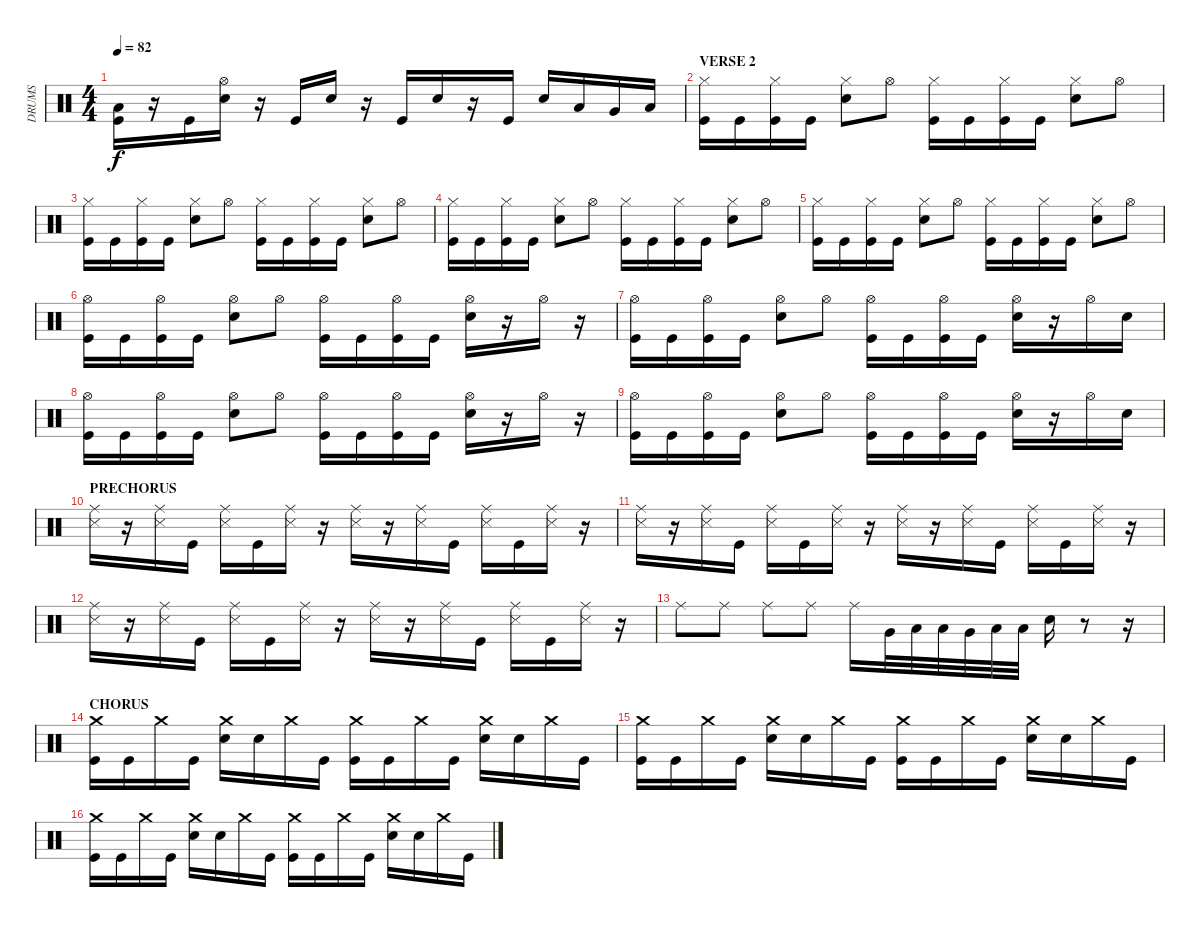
\track ("DRUMS" "DRUMS") {instrument percussion}
\staff {score}
\articulation defaults
\ts (4 4)
\tempo 82
\clef neutral
\ks c
("Low Tom (hit)" "Kick (hit)").16{dy f} r.16 "Kick (hit)".16 ("Hi-Hat (open)" "Electric Snare (hit)").16 r.16 "Kick (hit)".16 "Electric Snare (hit)".16 r.16 "Kick (hit)".16 "Electric Snare (hit)".16 r.16 "Kick (hit)".16 "Electric Snare (hit)".16 "Low Tom (hit)".16 "Very Low Tom (hit)".16 "Low Floor Tom (hit)".16 |
\section ("" "VERSE 2")
("Hi-Hat (closed)" "Kick (hit)").16 "Kick (hit)".16 ("Hi-Hat (closed)" "Kick (hit)").16 "Kick (hit)".16 ("Hi-Hat (closed)" "Electric Snare (hit)").8 "Hi-Hat (open)".8 ("Hi-Hat (closed)" "Kick (hit)").16 "Kick (hit)".16 ("Hi-Hat (closed)" "Kick (hit)").16 "Kick (hit)".16 ("Hi-Hat (closed)" "Electric Snare (hit)").8 "Hi-Hat (open)".8 |
("Hi-Hat (closed)" "Kick (hit)").16 "Kick (hit)".16 ("Hi-Hat (closed)" "Kick (hit)").16 "Kick (hit)".16 ("Hi-Hat (closed)" "Electric Snare (hit)").8 "Hi-Hat (open)".8 ("Hi-Hat (closed)" "Kick (hit)").16 "Kick (hit)".16 ("Hi-Hat (closed)" "Kick (hit)").16 "Kick (hit)".16 ("Hi-Hat (closed)" "Electric Snare (hit)").8 "Hi-Hat (open)".8 |
("Hi-Hat (closed)" "Kick (hit)").16 "Kick (hit)".16 ("Hi-Hat (closed)" "Kick (hit)").16 "Kick (hit)".16 ("Hi-Hat (closed)" "Electric Snare (hit)").8 "Hi-Hat (open)".8 ("Hi-Hat (closed)" "Kick (hit)").16 "Kick (hit)".16 ("Hi-Hat (closed)" "Kick (hit)").16 "Kick (hit)".16 ("Hi-Hat (closed)" "Electric Snare (hit)").8 "Hi-Hat (open)".8 |
("Hi-Hat (closed)" "Kick (hit)").16 "Kick (hit)".16 ("Hi-Hat (closed)" "Kick (hit)").16 "Kick (hit)".16 ("Hi-Hat (closed)" "Electric Snare (hit)").8 "Hi-Hat (open)".8 ("Hi-Hat (closed)" "Kick (hit)").16 "Kick (hit)".16 ("Hi-Hat (closed)" "Kick (hit)").16 "Kick (hit)".16 ("Hi-Hat (closed)" "Electric Snare (hit)").8 "Hi-Hat (open)".8 |
("Hi-Hat (open)" "Kick (hit)").16 "Kick (hit)".16 ("Hi-Hat (open)" "Kick (hit)").16 "Kick (hit)".16 ("Hi-Hat (open)" "Electric Snare (hit)").8 "Hi-Hat (open)".8 ("Hi-Hat (open)" "Kick (hit)").16 "Kick (hit)".16 ("Hi-Hat (open)" "Kick (hit)").16 "Kick (hit)".16 ("Hi-Hat (open)" "Electric Snare (hit)").16 r.16 "Hi-Hat (open)".16 r.16 |
("Hi-Hat (open)" "Kick (hit)").16 "Kick (hit)".16 ("Hi-Hat (open)" "Kick (hit)").16 "Kick (hit)".16 ("Hi-Hat (open)" "Electric Snare (hit)").8 "Hi-Hat (open)".8 ("Hi-Hat (open)" "Kick (hit)").16 "Kick (hit)".16 ("Hi-Hat (open)" "Kick (hit)").16 "Kick (hit)".16 ("Hi-Hat (open)" "Electric Snare (hit)").16 r.16 "Hi-Hat (open)".16 "Electric Snare (hit)".16 |
("Hi-Hat (open)" "Kick (hit)").16 "Kick (hit)".16 ("Hi-Hat (open)" "Kick (hit)").16 "Kick (hit)".16 ("Hi-Hat (open)" "Electric Snare (hit)").8 "Hi-Hat (open)".8 ("Hi-Hat (open)" "Kick (hit)").16 "Kick (hit)".16 ("Hi-Hat (open)" "Kick (hit)").16 "Kick (hit)".16 ("Hi-Hat (open)" "Electric Snare (hit)").16 r.16 "Hi-Hat (open)".16 r.16 |
("Hi-Hat (open)" "Kick (hit)").16 "Kick (hit)".16 ("Hi-Hat (open)" "Kick (hit)").16 "Kick (hit)".16 ("Hi-Hat (open)" "Electric Snare (hit)").8 "Hi-Hat (open)".8 ("Hi-Hat (open)" "Kick (hit)").16 "Kick (hit)".16 ("Hi-Hat (open)" "Kick (hit)").16 "Kick (hit)".16 ("Hi-Hat (open)" "Electric Snare (hit)").16 r.16 "Hi-Hat (open)".16 "Electric Snare (hit)".16 |
\section ("" "PRECHORUS")
("Ride (middle)" "Snare (side stick) 3").16 r.16 ("Ride (middle)" "Snare (side stick) 3").16 "Kick (hit)".16 ("Ride (middle)" "Snare (side stick) 3").16 "Kick (hit)".16 ("Ride (middle)" "Snare (side stick) 3").16 r.16 ("Ride (middle)" "Snare (side stick) 3").16 r.16 ("Ride (middle)" "Snare (side stick) 3").16 "Kick (hit)".16 ("Ride (middle)" "Snare (side stick) 3").16 "Kick (hit)".16 ("Ride (middle)" "Snare (side stick) 3").16 r.16 |
("Ride (middle)" "Snare (side stick) 3").16 r.16 ("Ride (middle)" "Snare (side stick) 3").16 "Kick (hit)".16 ("Ride (middle)" "Snare (side stick) 3").16 "Kick (hit)".16 ("Ride (middle)" "Snare (side stick) 3").16 r.16 ("Ride (middle)" "Snare (side stick) 3").16 r.16 ("Ride (middle)" "Snare (side stick) 3").16 "Kick (hit)".16 ("Ride (middle)" "Snare (side stick) 3").16 "Kick (hit)".16 ("Ride (middle)" "Snare (side stick) 3").16 r.16 |
("Ride (middle)" "Snare (side stick) 3").16 r.16 ("Ride (middle)" "Snare (side stick) 3").16 "Kick (hit)".16 ("Ride (middle)" "Snare (side stick) 3").16 "Kick (hit)".16 ("Ride (middle)" "Snare (side stick) 3").16 r.16 ("Ride (middle)" "Snare (side stick) 3").16 r.16 ("Ride (middle)" "Snare (side stick) 3").16 "Kick (hit)".16 ("Ride (middle)" "Snare (side stick) 3").16 "Kick (hit)".16 ("Ride (middle)" "Snare (side stick) 3").16 r.16{volume 3} |
"Ride (middle)".8{volume 13} "Ride (middle)".8 "Ride (middle)".8 "Ride (middle)".8 "Ride (middle)".16 "Very Low Tom (hit)".32 "Low Tom (hit)".32 "Low Tom (hit)".32 "Very Low Tom (hit)".32 "Low Floor Tom (hit)".32 "Low Floor Tom (hit)".32 "Electric Snare (hit)".16 r.8 r.16 |
\section ("" "CHORUS")
("Crash medium (hit)" "Kick (hit)").16{volume 13} "Kick (hit)".16 "Crash medium (hit)".16 "Kick (hit)".16 ("Crash medium (hit)" "Electric Snare (hit)").16 "Electric Snare (hit)".16 "Crash medium (hit)".16 "Kick (hit)".16 ("Crash medium (hit)" "Kick (hit)").16 "Kick (hit)".16 "Crash medium (hit)".16 "Kick (hit)".16 ("Crash medium (hit)" "Electric Snare (hit)").16 "Electric Snare (hit)".16 "Crash medium (hit)".16 "Kick (hit)".16 |
("Crash medium (hit)" "Kick (hit)").16{volume 13} "Kick (hit)".16 "Crash medium (hit)".16 "Kick (hit)".16 ("Crash medium (hit)" "Electric Snare (hit)").16 "Electric Snare (hit)".16 "Crash medium (hit)".16 "Kick (hit)".16 ("Crash medium (hit)" "Kick (hit)").16 "Kick (hit)".16 "Crash medium (hit)".16 "Kick (hit)".16 ("Crash medium (hit)" "Electric Snare (hit)").16 "Electric Snare (hit)".16 "Crash medium (hit)".16 "Kick (hit)".16 |
("Crash medium (hit)" "Kick (hit)").16{volume 13} "Kick (hit)".16 "Crash medium (hit)".16 "Kick (hit)".16 ("Crash medium (hit)" "Electric Snare (hit)").16 "Electric Snare (hit)".16 "Crash medium (hit)".16 "Kick (hit)".16 ("Crash medium (hit)" "Kick (hit)").16 "Kick (hit)".16 "Crash medium (hit)".16 "Kick (hit)".16 ("Crash medium (hit)" "Electric Snare (hit)").16 "Electric Snare (hit)".16 "Crash medium (hit)".16 "Kick (hit)".16
